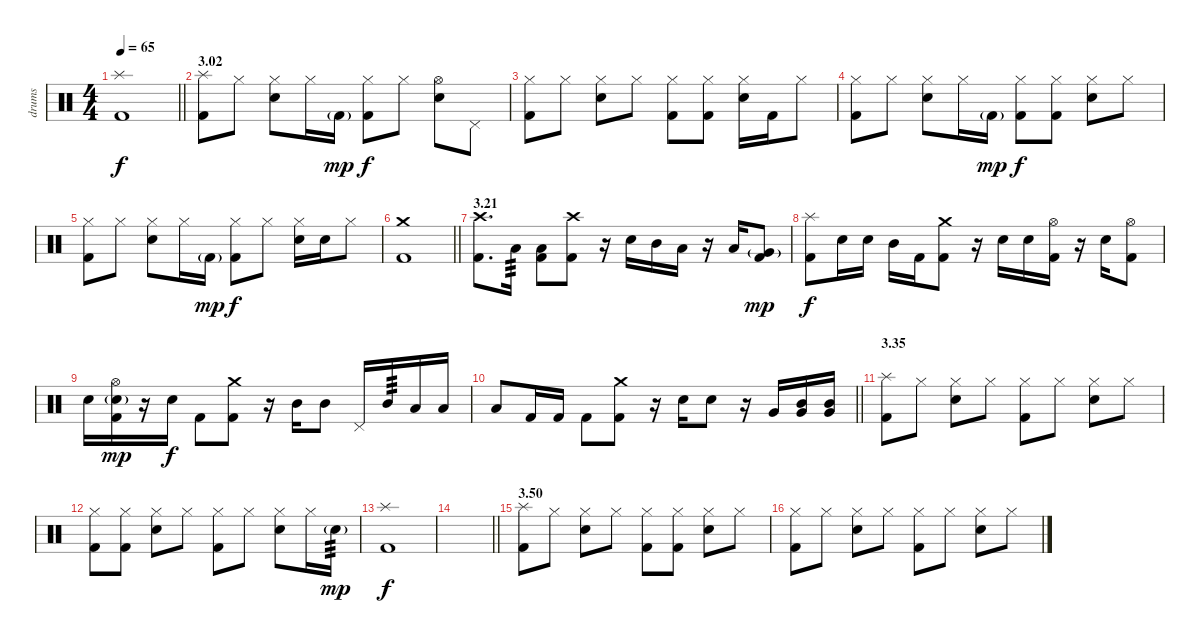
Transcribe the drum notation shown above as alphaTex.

\track ("drums" "drums") {instrument percussion}
\staff {score}
\articulation defaults
\ts (4 4)
\tempo 65
\clef neutral
\barLineRight lightlight
\ks c
("Splash (hit)" "Kick (hit) 2").1{dy f} |
\section ("" "3.02")
("Splash (hit)" "Kick (hit) 2").8 "Hi-Hat (closed)".8 ("Hi-Hat (closed)" "Electric Snare (hit)").8 "Hi-Hat (closed)".16 "Kick (hit) 2"{g}.16{dy mp} ("Hi-Hat (closed)" "Kick (hit) 2").8{dy f} "Hi-Hat (closed)".8 ("Hi-Hat (open)" "Electric Snare (hit)").8 "Pedal Hi-Hat (hit)".8 |
("Hi-Hat (closed)" "Kick (hit) 2").8 "Hi-Hat (closed)".8 ("Hi-Hat (closed)" "Electric Snare (hit)").8 "Hi-Hat (closed)".8 ("Hi-Hat (closed)" "Kick (hit) 2").8 ("Hi-Hat (closed)" "Kick (hit) 2").8 ("Hi-Hat (closed)" "Electric Snare (hit)").16 "Kick (hit) 2".16 "Hi-Hat (closed)".8 |
("Hi-Hat (closed)" "Kick (hit) 2").8 "Hi-Hat (closed)".8 ("Hi-Hat (closed)" "Electric Snare (hit)").8 "Hi-Hat (closed)".16 "Kick (hit) 2"{g}.16{dy mp} ("Hi-Hat (closed)" "Kick (hit) 2").8{dy f} ("Hi-Hat (closed)" "Kick (hit) 2").8 ("Hi-Hat (closed)" "Electric Snare (hit)").8 "Hi-Hat (closed)".8 |
("Hi-Hat (closed)" "Kick (hit) 2").8 "Hi-Hat (closed)".8 ("Hi-Hat (closed)" "Electric Snare (hit)").8 "Hi-Hat (closed)".16 "Kick (hit) 2"{g}.16{dy mp} ("Hi-Hat (closed)" "Kick (hit) 2").8{dy f} "Hi-Hat (closed)".8 ("Hi-Hat (closed)" "Electric Snare (hit)").16 "Electric Snare (hit)".16 "Hi-Hat (closed)".8 |
\barLineRight lightlight
("Crash medium (hit)" "Kick (hit) 2").1 |
\section ("" "3.21")
("Crash high (hit)" "Kick (hit) 2").8{d} "Low Tom (hit)".16{tp 3} ("Low Tom (hit)" "Kick (hit) 2").8 ("Crash high (hit)" "Kick (hit) 2").8 r.16 "Electric Snare (hit)".16 "Mid Tom (hit)".16 "Low Tom (hit)".16 r.16 "Low Tom (hit)".16 ("Very Low Tom (hit)"{g} "Kick (hit) 2").8{dy mp} |
("Splash (hit)" "Kick (hit) 2").8{dy f} "Electric Snare (hit)".16 "Electric Snare (hit)".16 "Mid Tom (hit)".16 "Kick (hit) 2".16 ("Crash medium (hit)" "Kick (hit) 2").8 r.16 "Electric Snare (hit)".16 "Electric Snare (hit)".16 ("Hi-Hat (open)" "Kick (hit) 2").16 r.16 "Electric Snare (hit)".16 ("Hi-Hat (open)" "Kick (hit) 2").8 |
"Electric Snare (hit)".16 ("Hi-Hat (open)" "Electric Snare (hit)"{g} "Kick (hit) 2").16{dy mp} r.16 "Electric Snare (hit)".16{dy f} "Kick (hit) 2".8 ("Crash medium (hit)" "Kick (hit) 2").8 r.16 "Mid Tom (hit)".16 "Mid Tom (hit)".8 "Pedal Hi-Hat (hit)".16 "Mid Tom (hit)".16{tp 3} "Low Tom (hit)".16 "Low Tom (hit)".16 |
\barLineRight lightlight "Low Tom (hit)".8 "Kick (hit) 2".16 "Kick (hit) 2".16 "Kick (hit) 2".8
("Crash medium (hit)" "Kick (hit) 2").8 r.16 "Electric Snare (hit)".16 "Electric Snare (hit)".8 r.16 "Very Low Tom (hit)".16 ("Mid Tom (hit)" "Very Low Tom (hit)").16 ("Mid Tom (hit)" "Very Low Tom (hit)").16 |
\section ("" "3.35")
("Splash (hit)" "Kick (hit) 2").8 "Hi-Hat (closed)".8 ("Hi-Hat (closed)" "Electric Snare (hit)").8 "Hi-Hat (closed)".8 ("Hi-Hat (closed)" "Kick (hit) 2").8 "Hi-Hat (closed)".8 ("Hi-Hat (closed)" "Electric Snare (hit)").8 "Hi-Hat (closed)".8 |
("Hi-Hat (closed)" "Kick (hit) 2").8 ("Hi-Hat (closed)" "Kick (hit) 2").8 ("Hi-Hat (closed)" "Electric Snare (hit)").8 "Hi-Hat (closed)".8 ("Hi-Hat (closed)" "Kick (hit) 2").8 "Hi-Hat (closed)".8 ("Hi-Hat (closed)" "Electric Snare (hit)").8 "Hi-Hat (closed)".16 "Electric Snare (hit)"{g}.16{tp 3 dy mp} |
("Splash (hit)" "Kick (hit) 2").1{dy f} |
\barLineRight lightlight
|
\section ("" "3.50")
("Splash (hit)" "Kick (hit) 2").8 "Hi-Hat (closed)".8 ("Hi-Hat (closed)" "Electric Snare (hit)").8 "Hi-Hat (closed)".8 ("Hi-Hat (closed)" "Kick (hit) 2").8 ("Hi-Hat (closed)" "Kick (hit) 2").8 ("Hi-Hat (closed)" "Electric Snare (hit)").8 "Hi-Hat (closed)".8 |
("Hi-Hat (closed)" "Kick (hit) 2").8 "Hi-Hat (closed)".8 ("Hi-Hat (closed)" "Electric Snare (hit)").8 "Hi-Hat (closed)".8 ("Hi-Hat (closed)" "Kick (hit) 2").8 "Hi-Hat (closed)".8 ("Hi-Hat (closed)" "Electric Snare (hit)").8 "Hi-Hat (closed)".8
